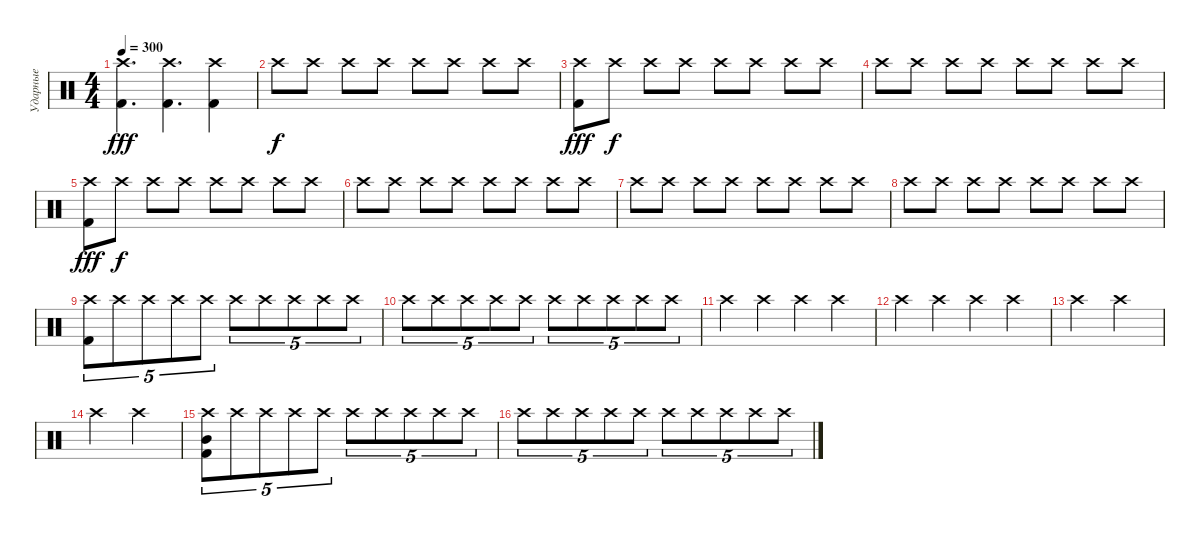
\track ("Ударные" "Ударные") {instrument percussion}
\staff {score}
\articulation defaults
\ts (4 4)
\tempo 300
\clef neutral
\ks c
("Kick (hit) 2" "Crash high (hit)").4{d dy fff} ("Kick (hit) 2" "Crash high (hit)").4{d} ("Kick (hit) 2" "Crash high (hit)").4 |
"Crash high (hit)".8{dy f} "Crash high (hit)".8 "Crash high (hit)".8 "Crash high (hit)".8 "Crash high (hit)".8 "Crash high (hit)".8 "Crash high (hit)".8 "Crash high (hit)".8 |
("Crash high (hit)" "Kick (hit) 2").8{dy fff} "Crash high (hit)".8{dy f} "Crash high (hit)".8 "Crash high (hit)".8 "Crash high (hit)".8 "Crash high (hit)".8 "Crash high (hit)".8 "Crash high (hit)".8 |
"Crash high (hit)".8 "Crash high (hit)".8 "Crash high (hit)".8 "Crash high (hit)".8 "Crash high (hit)".8 "Crash high (hit)".8 "Crash high (hit)".8 "Crash high (hit)".8 |
("Crash high (hit)" "Kick (hit) 2").8{dy fff} "Crash high (hit)".8{dy f} "Crash high (hit)".8 "Crash high (hit)".8 "Crash high (hit)".8 "Crash high (hit)".8 "Crash high (hit)".8 "Crash high (hit)".8 |
"Crash high (hit)".8 "Crash high (hit)".8 "Crash high (hit)".8 "Crash high (hit)".8 "Crash high (hit)".8 "Crash high (hit)".8 "Crash high (hit)".8 "Crash high (hit)".8 |
"Crash high (hit)".8 "Crash high (hit)".8 "Crash high (hit)".8 "Crash high (hit)".8 "Crash high (hit)".8 "Crash high (hit)".8 "Crash high (hit)".8 "Crash high (hit)".8 |
"Crash high (hit)".8 "Crash high (hit)".8 "Crash high (hit)".8 "Crash high (hit)".8 "Crash high (hit)".8 "Crash high (hit)".8 "Crash high (hit)".8 "Crash high (hit)".8 |
("Crash high (hit)" "Kick (hit) 2").8{tu (5 4)} "Crash high (hit)".8{tu (5 4)} "Crash high (hit)".8{tu (5 4)} "Crash high (hit)".8{tu (5 4)} "Crash high (hit)".8{tu (5 4)} "Crash high (hit)".8{tu (5 4)} "Crash high (hit)".8{tu (5 4)} "Crash high (hit)".8{tu (5 4)} "Crash high (hit)".8{tu (5 4)} "Crash high (hit)".8{tu (5 4)} |
"Crash high (hit)".8{tu (5 4)} "Crash high (hit)".8{tu (5 4)} "Crash high (hit)".8{tu (5 4)} "Crash high (hit)".8{tu (5 4)} "Crash high (hit)".8{tu (5 4)} "Crash high (hit)".8{tu (5 4)} "Crash high (hit)".8{tu (5 4)} "Crash high (hit)".8{tu (5 4)} "Crash high (hit)".8{tu (5 4)} "Crash high (hit)".8{tu (5 4)} |
"Crash high (hit)".4 "Crash high (hit)".4 "Crash high (hit)".4 "Crash high (hit)".4 |
"Crash high (hit)".4 "Crash high (hit)".4 "Crash high (hit)".4 "Crash high (hit)".4 |
"Crash high (hit)".2 "Crash high (hit)".2 |
"Crash high (hit)".2 "Crash high (hit)".2 |
("Crash high (hit)" "Kick (hit) 2" "Mid Tom (hit)").8{tu (5 4)} "Crash high (hit)".8{tu (5 4)} "Crash high (hit)".8{tu (5 4)} "Crash high (hit)".8{tu (5 4)} "Crash high (hit)".8{tu (5 4)} "Crash high (hit)".8{tu (5 4)} "Crash high (hit)".8{tu (5 4)} "Crash high (hit)".8{tu (5 4)} "Crash high (hit)".8{tu (5 4)} "Crash high (hit)".8{tu (5 4)} |
"Crash high (hit)".8{tu (5 4)} "Crash high (hit)".8{tu (5 4)} "Crash high (hit)".8{tu (5 4)} "Crash high (hit)".8{tu (5 4)} "Crash high (hit)".8{tu (5 4)} "Crash high (hit)".8{tu (5 4)} "Crash high (hit)".8{tu (5 4)} "Crash high (hit)".8{tu (5 4)} "Crash high (hit)".8{tu (5 4)} "Crash high (hit)".8{tu (5 4)}
